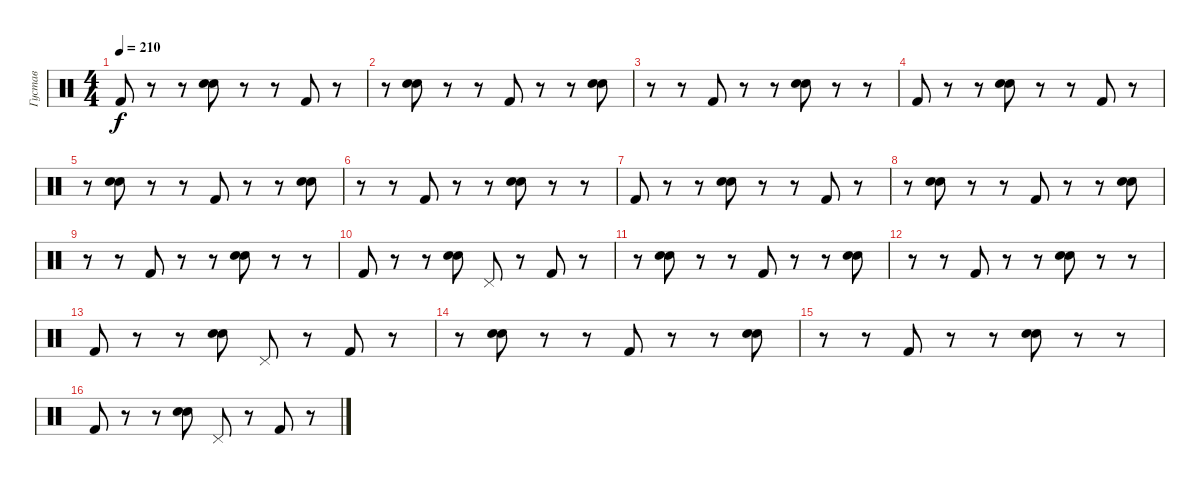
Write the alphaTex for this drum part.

\track ("Густав" "Густав") {instrument percussion}
\staff {score}
\articulation defaults
\ts (4 4)
\tempo 210
\clef neutral
\ks c "Kick (hit) 2".8{dy f}
r.8 r.8 ("Electric Snare (hit)" "Snare (hit) 2").8 r.8 r.8 "Kick (hit) 2".8 r.8 |
r.8 ("Electric Snare (hit)" "Snare (hit) 2").8 r.8 r.8 "Kick (hit) 2".8 r.8 r.8 ("Electric Snare (hit)" "Snare (hit) 2").8 |
r.8 r.8 "Kick (hit) 2".8 r.8 r.8 ("Electric Snare (hit)" "Snare (hit) 2").8 r.8 r.8 |
"Kick (hit) 2".8 r.8 r.8 ("Electric Snare (hit)" "Snare (hit) 2").8 r.8 r.8 "Kick (hit) 2".8 r.8 |
r.8 ("Electric Snare (hit)" "Snare (hit) 2").8 r.8 r.8 "Kick (hit) 2".8 r.8 r.8 ("Electric Snare (hit)" "Snare (hit) 2").8 |
r.8 r.8 "Kick (hit) 2".8 r.8 r.8 ("Electric Snare (hit)" "Snare (hit) 2").8 r.8 r.8 |
"Kick (hit) 2".8 r.8 r.8 ("Electric Snare (hit)" "Snare (hit) 2").8 r.8 r.8 "Kick (hit) 2".8 r.8 |
r.8 ("Electric Snare (hit)" "Snare (hit) 2").8 r.8 r.8 "Kick (hit) 2".8 r.8 r.8 ("Electric Snare (hit)" "Snare (hit) 2").8 |
r.8 r.8 "Kick (hit) 2".8 r.8 r.8 ("Electric Snare (hit)" "Snare (hit) 2").8 r.8 r.8 |
"Kick (hit) 2".8 r.8 r.8 ("Electric Snare (hit)" "Snare (hit) 2").8 "Pedal Hi-Hat (hit)".8 r.8 "Kick (hit) 2".8 r.8 |
r.8 ("Electric Snare (hit)" "Snare (hit) 2").8 r.8 r.8 "Kick (hit) 2".8 r.8 r.8 ("Electric Snare (hit)" "Snare (hit) 2").8 |
r.8 r.8 "Kick (hit) 2".8 r.8 r.8 ("Electric Snare (hit)" "Snare (hit) 2").8 r.8 r.8 |
"Kick (hit) 2".8 r.8 r.8 ("Electric Snare (hit)" "Snare (hit) 2").8 "Pedal Hi-Hat (hit)".8 r.8 "Kick (hit) 2".8 r.8 |
r.8 ("Electric Snare (hit)" "Snare (hit) 2").8 r.8 r.8 "Kick (hit) 2".8 r.8 r.8 ("Electric Snare (hit)" "Snare (hit) 2").8 |
r.8 r.8 "Kick (hit) 2".8 r.8 r.8 ("Electric Snare (hit)" "Snare (hit) 2").8 r.8 r.8 |
"Kick (hit) 2".8 r.8 r.8 ("Electric Snare (hit)" "Snare (hit) 2").8 "Pedal Hi-Hat (hit)".8 r.8 "Kick (hit) 2".8 r.8
